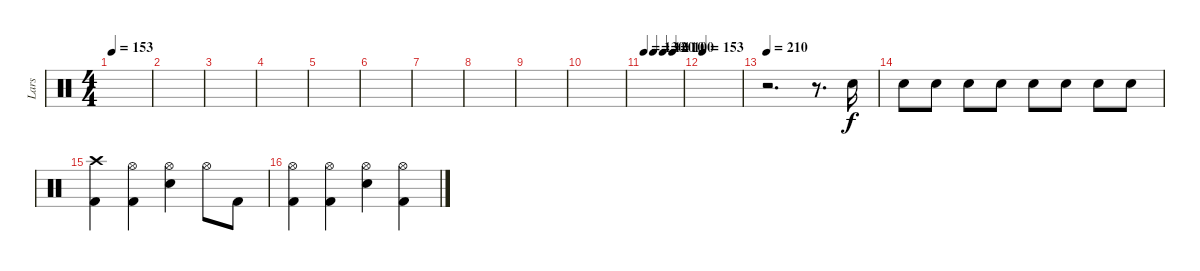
\track ("Lars" "Lars") {instrument percussion}
\staff {score}
\articulation defaults
\ts (4 4)
\tempo 153
\clef neutral
\ks c
|
|
|
|
|
|
|
|
|
|
\tempo 130
\tempo (120 0.25)
\tempo (110 0.5)
\tempo (100 0.75)
|
\tempo 153
|
\tempo 210
r.2{d} r.8{d} "Snare (hit) 2".16 |
"Snare (hit) 2".8 "Snare (hit) 2".8 "Snare (hit) 2".8 "Snare (hit) 2".8 "Snare (hit) 2".8 "Snare (hit) 2".8 "Snare (hit) 2".8 "Snare (hit) 2".8 |
("Kick (hit) 2" "Crash high (hit)").4 ("Kick (hit) 2" "Hi-Hat (open)").4 ("Snare (hit) 2" "Hi-Hat (open)").4 "Hi-Hat (open)".8 "Kick (hit) 2".8 |
("Kick (hit) 2" "Hi-Hat (open)").4 ("Kick (hit) 2" "Hi-Hat (open)").4 ("Snare (hit) 2" "Hi-Hat (open)").4 ("Kick (hit) 2" "Hi-Hat (open)").4
